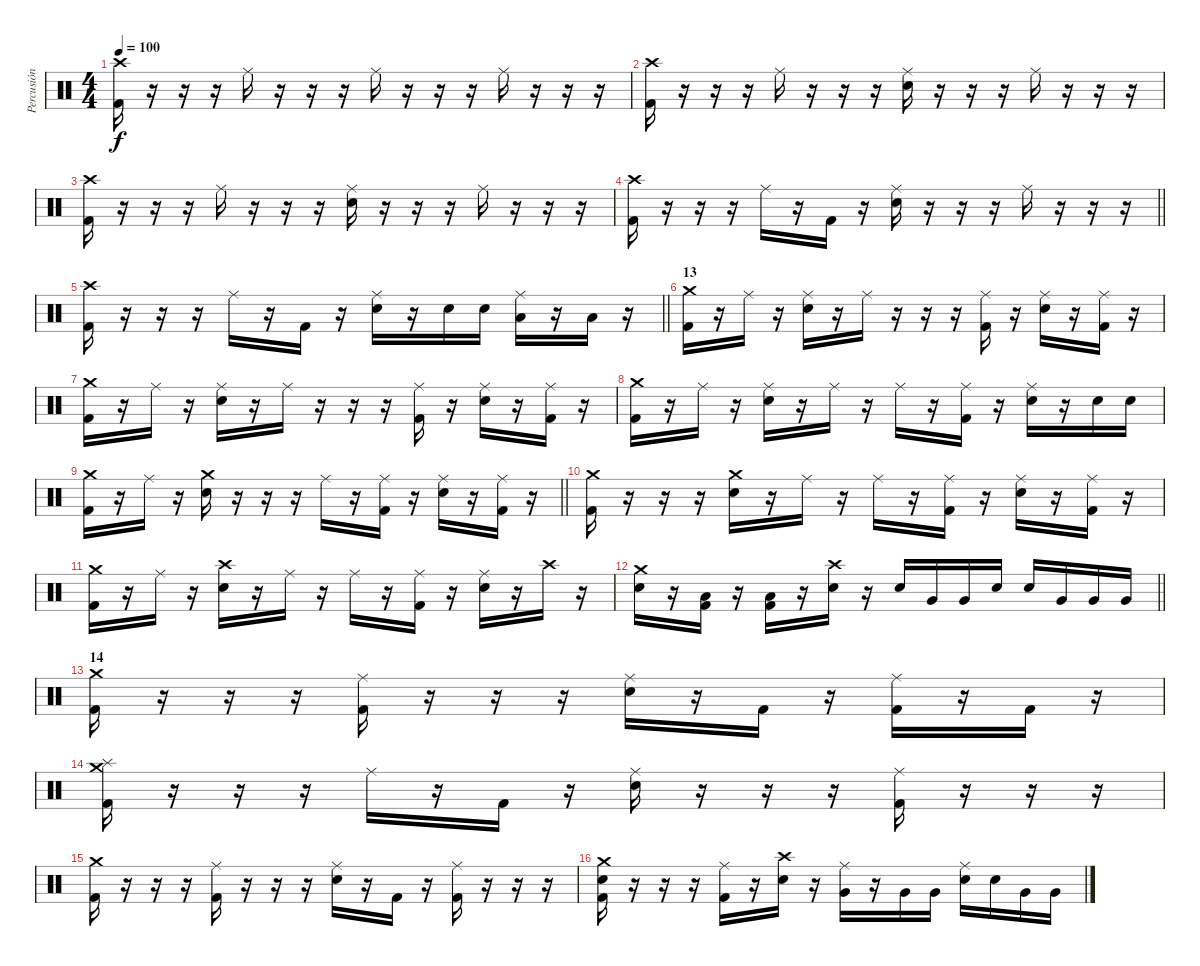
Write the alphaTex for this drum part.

\track ("Percusión" "Percusión") {instrument percussion}
\staff {score}
\articulation defaults
\ts (4 4)
\tempo 100
\clef neutral
\ks c
("Crash high (hit)" "Kick (hit) 2").16{dy f} r.16 r.16 r.16 "Ride (middle)".16 r.16 r.16 r.16 "Ride (middle)".16 r.16 r.16 r.16 "Ride (middle)".16 r.16 r.16 r.16 |
("Crash high (hit)" "Kick (hit) 2").16 r.16 r.16 r.16 "Ride (middle)".16 r.16 r.16 r.16 ("Ride (middle)" "Electric Snare (hit)").16 r.16 r.16 r.16 "Ride (middle)".16 r.16 r.16 r.16 |
("Crash high (hit)" "Kick (hit) 2").16 r.16 r.16 r.16 "Ride (middle)".16 r.16 r.16 r.16 ("Ride (middle)" "Electric Snare (hit)").16 r.16 r.16 r.16 "Ride (middle)".16 r.16 r.16 r.16 |
\barLineRight lightlight
("Crash high (hit)" "Kick (hit) 2").16 r.16 r.16 r.16 "Ride (middle)".16 r.16 "Kick (hit) 2".16 r.16 ("Ride (middle)" "Electric Snare (hit)").16 r.16 r.16 r.16 "Ride (middle)".16 r.16 r.16 r.16 |
\section ("" "")
\barLineRight lightlight
("Crash high (hit)" "Kick (hit) 2").16 r.16 r.16 r.16 "Ride (middle)".16 r.16 "Kick (hit) 2".16 r.16 ("Ride (middle)" "Electric Snare (hit)").16 r.16 "Electric Snare (hit)".16 "Electric Snare (hit)".16 ("Ride (middle)" "Low Floor Tom (hit)").16 r.16 "Low Floor Tom (hit)".16 r.16 |
\section ("" "13")
("Crash medium (hit)" "Kick (hit) 2").16 r.16 "Ride (middle)".16 r.16 ("Ride (middle)" "Electric Snare (hit)").16 r.16 "Ride (middle)".16 r.16 r.16 r.16 ("Ride (middle)" "Kick (hit) 2").16 r.16 ("Ride (middle)" "Electric Snare (hit)").16 r.16 ("Ride (middle)" "Kick (hit) 2").16 r.16 |
("Crash medium (hit)" "Kick (hit) 2").16 r.16 "Ride (middle)".16 r.16 ("Ride (middle)" "Electric Snare (hit)").16 r.16 "Ride (middle)".16 r.16 r.16 r.16 ("Ride (middle)" "Kick (hit) 2").16 r.16 ("Ride (middle)" "Electric Snare (hit)").16 r.16 ("Ride (middle)" "Kick (hit) 2").16 r.16 |
("Crash medium (hit)" "Kick (hit) 2").16 r.16 "Ride (middle)".16 r.16 ("Ride (middle)" "Electric Snare (hit)").16 r.16 "Ride (middle)".16 r.16 "Ride (middle)".16 r.16 ("Ride (middle)" "Kick (hit) 2").16 r.16 ("Ride (middle)" "Electric Snare (hit)").16 r.16 "Electric Snare (hit)".16 "Electric Snare (hit)".16 |
\barLineRight lightlight
("Crash medium (hit)" "Kick (hit) 2").16 r.16 "Ride (middle)".16 r.16 ("Crash medium (hit)" "Electric Snare (hit)").16 r.16 r.16 r.16 "Ride (middle)".16 r.16 ("Ride (middle)" "Kick (hit) 2").16 r.16 ("Ride (middle)" "Electric Snare (hit)").16 r.16 ("Ride (middle)" "Kick (hit) 2").16 r.16 |
("Crash medium (hit)" "Kick (hit) 2").16 r.16 r.16 r.16 ("Crash medium (hit)" "Electric Snare (hit)").16 r.16 "Ride (middle)".16 r.16 "Ride (middle)".16 r.16 ("Ride (middle)" "Kick (hit) 2").16 r.16 ("Ride (middle)" "Electric Snare (hit)").16 r.16 ("Ride (middle)" "Kick (hit) 2").16 r.16 |
("Crash medium (hit)" "Kick (hit) 2").16 r.16 "Ride (middle)".16 r.16 ("Crash high (hit)" "Electric Snare (hit)").16 r.16 "Ride (middle)".16 r.16 "Ride (middle)".16 r.16 ("Ride (middle)" "Kick (hit) 2").16 r.16 ("Ride (middle)" "Electric Snare (hit)").16 r.16 "Crash high (hit)".16 r.16 |
\barLineRight lightlight
("Crash medium (hit)" "Electric Snare (hit)").16 r.16 ("Low Floor Tom (hit)" "Kick (hit) 2").16 r.16 ("Low Floor Tom (hit)" "Kick (hit) 2").16 r.16 ("Crash high (hit)" "Electric Snare (hit)").16 r.16 "Electric Snare (hit)".16 "Very Low Tom (hit)".16 "Very Low Tom (hit)".16 "Electric Snare (hit)".16 "Electric Snare (hit)".16 "Very Low Tom (hit)".16 "Very Low Tom (hit)".16 "Very Low Tom (hit)".16 |
\section ("" "14")
("Crash medium (hit)" "Kick (hit) 2").16 r.16 r.16 r.16 ("Ride (middle)" "Kick (hit) 2").16 r.16 r.16 r.16 ("Ride (middle)" "Electric Snare (hit)").16 r.16 "Kick (hit) 2".16 r.16 ("Ride (middle)" "Kick (hit) 2").16 r.16 "Kick (hit) 2".16 r.16 |
("Crash medium (hit)" "Splash (hit)" "Kick (hit) 2").16 r.16 r.16 r.16 "Ride (middle)".16 r.16 "Kick (hit) 2".16 r.16 ("Ride (middle)" "Electric Snare (hit)").16 r.16 r.16 r.16 ("Ride (middle)" "Kick (hit) 2").16 r.16 r.16 r.16 |
("Crash medium (hit)" "Kick (hit) 2").16 r.16 r.16 r.16 ("Ride (middle)" "Kick (hit) 2").16 r.16 r.16 r.16 ("Ride (middle)" "Electric Snare (hit)").16 r.16 "Kick (hit) 2".16 r.16 ("Ride (middle)" "Kick (hit) 2").16 r.16 r.16 r.16 |
("Crash medium (hit)" "Electric Snare (hit)" "Kick (hit) 2").16 r.16 r.16 r.16 ("Ride (middle)" "Kick (hit) 2").16 r.16 ("Crash high (hit)" "Electric Snare (hit)").16 r.16 ("Ride (middle)" "Very Low Tom (hit)").16 r.16 "Very Low Tom (hit)".16 "Very Low Tom (hit)".16 ("Ride (middle)" "Electric Snare (hit)").16 "Electric Snare (hit)".16 "Very Low Tom (hit)".16 "Very Low Tom (hit)".16
